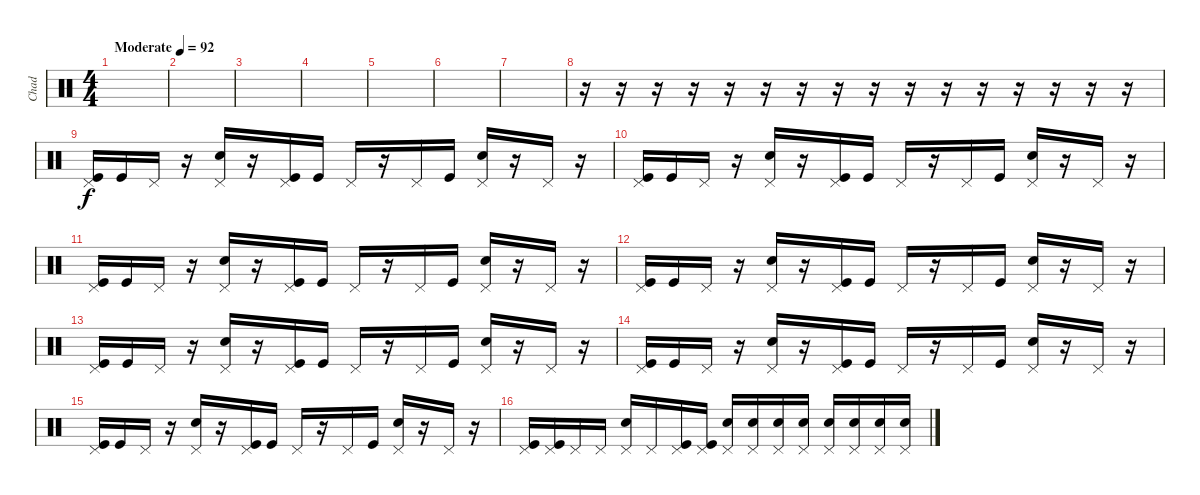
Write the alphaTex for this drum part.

\track ("Chad" "Chad") {instrument percussion}
\staff {score}
\articulation defaults
\ts (4 4)
\tempo (92 "Moderate")
\clef neutral
\ks c
|
|
|
|
|
|
|
r.16 r.16 r.16 r.16 r.16 r.16 r.16 r.16 r.16 r.16 r.16 r.16 r.16 r.16 r.16 r.16 |
("Pedal Hi-Hat (hit)" "Kick (hit)").16 "Kick (hit)".16 "Pedal Hi-Hat (hit)".16 r.16 ("Pedal Hi-Hat (hit)" "Snare (hit) 2").16 r.16 ("Pedal Hi-Hat (hit)" "Kick (hit)").16 "Kick (hit)".16 "Pedal Hi-Hat (hit)".16 r.16 "Pedal Hi-Hat (hit)".16 "Kick (hit)".16 ("Pedal Hi-Hat (hit)" "Snare (hit) 2").16 r.16 "Pedal Hi-Hat (hit)".16 r.16 |
("Pedal Hi-Hat (hit)" "Kick (hit)").16 "Kick (hit)".16 "Pedal Hi-Hat (hit)".16 r.16 ("Pedal Hi-Hat (hit)" "Snare (hit) 2").16 r.16 ("Pedal Hi-Hat (hit)" "Kick (hit)").16 "Kick (hit)".16 "Pedal Hi-Hat (hit)".16 r.16 "Pedal Hi-Hat (hit)".16 "Kick (hit)".16 ("Pedal Hi-Hat (hit)" "Snare (hit) 2").16 r.16 "Pedal Hi-Hat (hit)".16 r.16 |
("Pedal Hi-Hat (hit)" "Kick (hit)").16 "Kick (hit)".16 "Pedal Hi-Hat (hit)".16 r.16 ("Pedal Hi-Hat (hit)" "Snare (hit) 2").16 r.16 ("Pedal Hi-Hat (hit)" "Kick (hit)").16 "Kick (hit)".16 "Pedal Hi-Hat (hit)".16 r.16 "Pedal Hi-Hat (hit)".16 "Kick (hit)".16 ("Pedal Hi-Hat (hit)" "Snare (hit) 2").16 r.16 "Pedal Hi-Hat (hit)".16 r.16 |
("Pedal Hi-Hat (hit)" "Kick (hit)").16 "Kick (hit)".16 "Pedal Hi-Hat (hit)".16 r.16 ("Pedal Hi-Hat (hit)" "Snare (hit) 2").16 r.16 ("Pedal Hi-Hat (hit)" "Kick (hit)").16 "Kick (hit)".16 "Pedal Hi-Hat (hit)".16 r.16 "Pedal Hi-Hat (hit)".16 "Kick (hit)".16 ("Pedal Hi-Hat (hit)" "Snare (hit) 2").16 r.16 "Pedal Hi-Hat (hit)".16 r.16 |
("Pedal Hi-Hat (hit)" "Kick (hit)").16 "Kick (hit)".16 "Pedal Hi-Hat (hit)".16 r.16 ("Pedal Hi-Hat (hit)" "Snare (hit) 2").16 r.16 ("Pedal Hi-Hat (hit)" "Kick (hit)").16 "Kick (hit)".16 "Pedal Hi-Hat (hit)".16 r.16 "Pedal Hi-Hat (hit)".16 "Kick (hit)".16 ("Pedal Hi-Hat (hit)" "Snare (hit) 2").16 r.16 "Pedal Hi-Hat (hit)".16 r.16 |
("Pedal Hi-Hat (hit)" "Kick (hit)").16 "Kick (hit)".16 "Pedal Hi-Hat (hit)".16 r.16 ("Pedal Hi-Hat (hit)" "Snare (hit) 2").16 r.16 ("Pedal Hi-Hat (hit)" "Kick (hit)").16 "Kick (hit)".16 "Pedal Hi-Hat (hit)".16 r.16 "Pedal Hi-Hat (hit)".16 "Kick (hit)".16 ("Pedal Hi-Hat (hit)" "Snare (hit) 2").16 r.16 "Pedal Hi-Hat (hit)".16 r.16 |
("Pedal Hi-Hat (hit)" "Kick (hit)").16 "Kick (hit)".16 "Pedal Hi-Hat (hit)".16 r.16 ("Pedal Hi-Hat (hit)" "Snare (hit) 2").16 r.16 ("Pedal Hi-Hat (hit)" "Kick (hit)").16 "Kick (hit)".16 "Pedal Hi-Hat (hit)".16 r.16 "Pedal Hi-Hat (hit)".16 "Kick (hit)".16 ("Pedal Hi-Hat (hit)" "Snare (hit) 2").16 r.16 "Pedal Hi-Hat (hit)".16 r.16 |
("Pedal Hi-Hat (hit)" "Kick (hit)").16 ("Kick (hit)" "Pedal Hi-Hat (hit)").16 "Pedal Hi-Hat (hit)".16 "Pedal Hi-Hat (hit)".16 ("Pedal Hi-Hat (hit)" "Snare (hit) 2").16 "Pedal Hi-Hat (hit)".16 ("Pedal Hi-Hat (hit)" "Kick (hit)").16 ("Kick (hit)" "Pedal Hi-Hat (hit)").16 ("Pedal Hi-Hat (hit)" "Snare (hit) 2").16 ("Snare (hit) 2" "Pedal Hi-Hat (hit)").16 ("Pedal Hi-Hat (hit)" "Snare (hit) 2").16 ("Snare (hit) 2" "Pedal Hi-Hat (hit)").16 ("Pedal Hi-Hat (hit)" "Snare (hit) 2").16 ("Snare (hit) 2" "Pedal Hi-Hat (hit)").16 ("Pedal Hi-Hat (hit)" "Snare (hit) 2").16 ("Snare (hit) 2" "Pedal Hi-Hat (hit)").16
